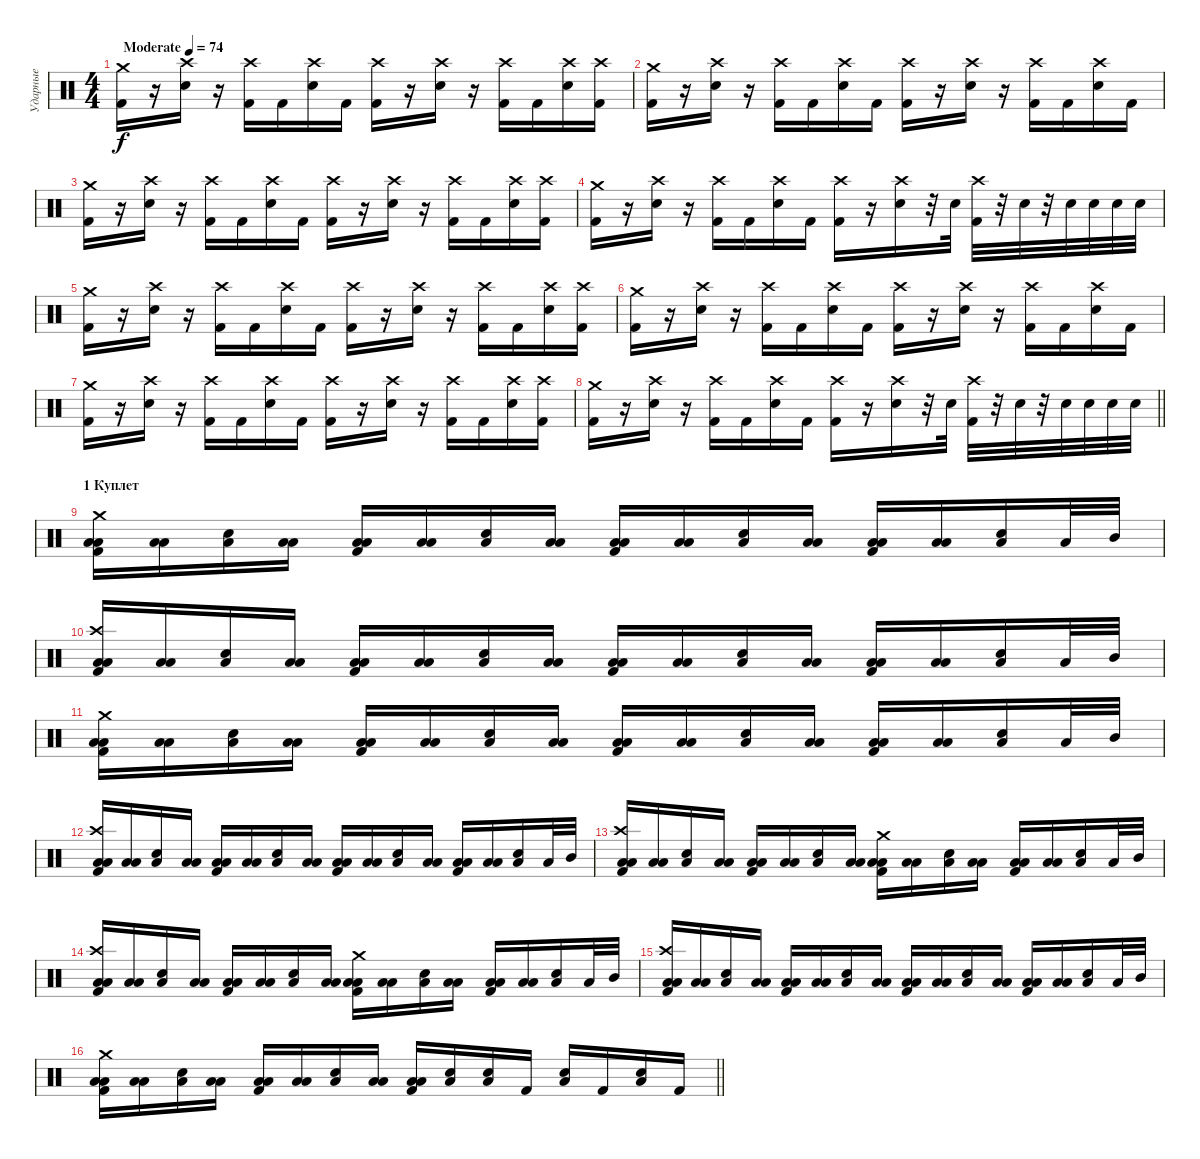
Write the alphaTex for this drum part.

\track ("Ударные" "Ударные") {instrument percussion}
\staff {score}
\articulation defaults
\ts (4 4)
\tempo (74 "Moderate")
\clef neutral
\ks c
("Crash medium (hit)" "Kick (hit) 2").16{dy f} r.16 ("Crash high (hit)" "Electric Snare (hit)").16 r.16 ("Crash high (hit)" "Kick (hit) 2").16 "Kick (hit) 2".16 ("Crash high (hit)" "Electric Snare (hit)").16 "Kick (hit) 2".16 ("Crash high (hit)" "Kick (hit) 2").16 r.16 ("Crash high (hit)" "Electric Snare (hit)").16 r.16 ("Crash high (hit)" "Kick (hit) 2").16 "Kick (hit) 2".16 ("Crash high (hit)" "Electric Snare (hit)").16 ("Crash high (hit)" "Kick (hit) 2").16 |
("Crash medium (hit)" "Kick (hit) 2").16 r.16 ("Crash high (hit)" "Electric Snare (hit)").16 r.16 ("Crash high (hit)" "Kick (hit) 2").16 "Kick (hit) 2".16 ("Crash high (hit)" "Electric Snare (hit)").16 "Kick (hit) 2".16 ("Crash high (hit)" "Kick (hit) 2").16 r.16 ("Crash high (hit)" "Electric Snare (hit)").16 r.16 ("Crash high (hit)" "Kick (hit) 2").16 "Kick (hit) 2".16 ("Crash high (hit)" "Electric Snare (hit)").16 "Kick (hit) 2".16 |
("Crash medium (hit)" "Kick (hit) 2").16 r.16 ("Crash high (hit)" "Electric Snare (hit)").16 r.16 ("Crash high (hit)" "Kick (hit) 2").16 "Kick (hit) 2".16 ("Crash high (hit)" "Electric Snare (hit)").16 "Kick (hit) 2".16 ("Crash high (hit)" "Kick (hit) 2").16 r.16 ("Crash high (hit)" "Electric Snare (hit)").16 r.16 ("Crash high (hit)" "Kick (hit) 2").16 "Kick (hit) 2".16 ("Crash high (hit)" "Electric Snare (hit)").16 ("Crash high (hit)" "Kick (hit) 2").16 |
("Crash medium (hit)" "Kick (hit) 2").16 r.16 ("Crash high (hit)" "Electric Snare (hit)").16 r.16 ("Crash high (hit)" "Kick (hit) 2").16 "Kick (hit) 2".16 ("Crash high (hit)" "Electric Snare (hit)").16 "Kick (hit) 2".16 ("Crash high (hit)" "Kick (hit) 2").16 r.16 ("Crash high (hit)" "Electric Snare (hit)").16 r.32 "Electric Snare (hit)".32 ("Crash high (hit)" "Kick (hit) 2").32 r.32 "Electric Snare (hit)".32 r.32 "Electric Snare (hit)".32 "Electric Snare (hit)".32 "Electric Snare (hit)".32 "Electric Snare (hit)".32 |
("Crash medium (hit)" "Kick (hit) 2").16 r.16 ("Crash high (hit)" "Electric Snare (hit)").16 r.16 ("Crash high (hit)" "Kick (hit) 2").16 "Kick (hit) 2".16 ("Crash high (hit)" "Electric Snare (hit)").16 "Kick (hit) 2".16 ("Crash high (hit)" "Kick (hit) 2").16 r.16 ("Crash high (hit)" "Electric Snare (hit)").16 r.16 ("Crash high (hit)" "Kick (hit) 2").16 "Kick (hit) 2".16 ("Crash high (hit)" "Electric Snare (hit)").16 ("Crash high (hit)" "Kick (hit) 2").16 |
("Crash medium (hit)" "Kick (hit) 2").16 r.16 ("Crash high (hit)" "Electric Snare (hit)").16 r.16 ("Crash high (hit)" "Kick (hit) 2").16 "Kick (hit) 2".16 ("Crash high (hit)" "Electric Snare (hit)").16 "Kick (hit) 2".16 ("Crash high (hit)" "Kick (hit) 2").16 r.16 ("Crash high (hit)" "Electric Snare (hit)").16 r.16 ("Crash high (hit)" "Kick (hit) 2").16 "Kick (hit) 2".16 ("Crash high (hit)" "Electric Snare (hit)").16 "Kick (hit) 2".16 |
("Crash medium (hit)" "Kick (hit) 2").16 r.16 ("Crash high (hit)" "Electric Snare (hit)").16 r.16 ("Crash high (hit)" "Kick (hit) 2").16 "Kick (hit) 2".16 ("Crash high (hit)" "Electric Snare (hit)").16 "Kick (hit) 2".16 ("Crash high (hit)" "Kick (hit) 2").16 r.16 ("Crash high (hit)" "Electric Snare (hit)").16 r.16 ("Crash high (hit)" "Kick (hit) 2").16 "Kick (hit) 2".16 ("Crash high (hit)" "Electric Snare (hit)").16 ("Crash high (hit)" "Kick (hit) 2").16 |
\barLineRight lightlight
("Crash medium (hit)" "Kick (hit) 2").16 r.16 ("Crash high (hit)" "Electric Snare (hit)").16 r.16 ("Crash high (hit)" "Kick (hit) 2").16 "Kick (hit) 2".16 ("Crash high (hit)" "Electric Snare (hit)").16 "Kick (hit) 2".16 ("Crash high (hit)" "Kick (hit) 2").16 r.16 ("Crash high (hit)" "Electric Snare (hit)").16 r.32 "Electric Snare (hit)".32 ("Crash high (hit)" "Kick (hit) 2").32 r.32 "Electric Snare (hit)".32 r.32 "Electric Snare (hit)".32 "Electric Snare (hit)".32 "Electric Snare (hit)".32 "Electric Snare (hit)".32 |
\section ("" "1 Куплет")
("Crash medium (hit)" "Low Tom (hit)" "Low Floor Tom (hit)" "Kick (hit) 2").16 ("Low Tom (hit)" "Low Floor Tom (hit)").16 ("Low Floor Tom (hit)" "Electric Snare (hit)").16 ("Low Tom (hit)" "Low Floor Tom (hit)").16 ("Low Tom (hit)" "Low Floor Tom (hit)" "Kick (hit) 2").16 ("Low Tom (hit)" "Low Floor Tom (hit)").16 ("Low Floor Tom (hit)" "Electric Snare (hit)").16 ("Low Tom (hit)" "Low Floor Tom (hit)").16 ("Low Tom (hit)" "Low Floor Tom (hit)" "Kick (hit) 2").16 ("Low Tom (hit)" "Low Floor Tom (hit)").16 ("Low Floor Tom (hit)" "Electric Snare (hit)").16 ("Low Tom (hit)" "Low Floor Tom (hit)").16 ("Low Tom (hit)" "Low Floor Tom (hit)" "Kick (hit) 2").16 ("Low Tom (hit)" "Low Floor Tom (hit)").16 ("Low Floor Tom (hit)" "Electric Snare (hit)").16 "Low Tom (hit)".32 "Mid Tom (hit)".32 |
("Crash high (hit)" "Low Tom (hit)" "Low Floor Tom (hit)" "Kick (hit) 2").16 ("Low Tom (hit)" "Low Floor Tom (hit)").16 ("Low Floor Tom (hit)" "Electric Snare (hit)").16 ("Low Tom (hit)" "Low Floor Tom (hit)").16 ("Low Tom (hit)" "Low Floor Tom (hit)" "Kick (hit) 2").16 ("Low Tom (hit)" "Low Floor Tom (hit)").16 ("Low Floor Tom (hit)" "Electric Snare (hit)").16 ("Low Tom (hit)" "Low Floor Tom (hit)").16 ("Low Tom (hit)" "Low Floor Tom (hit)" "Kick (hit) 2").16 ("Low Tom (hit)" "Low Floor Tom (hit)").16 ("Low Floor Tom (hit)" "Electric Snare (hit)").16 ("Low Tom (hit)" "Low Floor Tom (hit)").16 ("Low Tom (hit)" "Low Floor Tom (hit)" "Kick (hit) 2").16 ("Low Tom (hit)" "Low Floor Tom (hit)").16 ("Low Floor Tom (hit)" "Electric Snare (hit)").16 "Low Tom (hit)".32 "Mid Tom (hit)".32 |
("Crash medium (hit)" "Low Tom (hit)" "Low Floor Tom (hit)" "Kick (hit) 2").16 ("Low Tom (hit)" "Low Floor Tom (hit)").16 ("Low Floor Tom (hit)" "Electric Snare (hit)").16 ("Low Tom (hit)" "Low Floor Tom (hit)").16 ("Low Tom (hit)" "Low Floor Tom (hit)" "Kick (hit) 2").16 ("Low Tom (hit)" "Low Floor Tom (hit)").16 ("Low Floor Tom (hit)" "Electric Snare (hit)").16 ("Low Tom (hit)" "Low Floor Tom (hit)").16 ("Low Tom (hit)" "Low Floor Tom (hit)" "Kick (hit) 2").16 ("Low Tom (hit)" "Low Floor Tom (hit)").16 ("Low Floor Tom (hit)" "Electric Snare (hit)").16 ("Low Tom (hit)" "Low Floor Tom (hit)").16 ("Low Tom (hit)" "Low Floor Tom (hit)" "Kick (hit) 2").16 ("Low Tom (hit)" "Low Floor Tom (hit)").16 ("Low Floor Tom (hit)" "Electric Snare (hit)").16 "Low Tom (hit)".32 "Mid Tom (hit)".32 |
("Crash high (hit)" "Low Tom (hit)" "Low Floor Tom (hit)" "Kick (hit) 2").16 ("Low Tom (hit)" "Low Floor Tom (hit)").16 ("Low Floor Tom (hit)" "Electric Snare (hit)").16 ("Low Tom (hit)" "Low Floor Tom (hit)").16 ("Low Tom (hit)" "Low Floor Tom (hit)" "Kick (hit) 2").16 ("Low Tom (hit)" "Low Floor Tom (hit)").16 ("Low Floor Tom (hit)" "Electric Snare (hit)").16 ("Low Tom (hit)" "Low Floor Tom (hit)").16 ("Low Tom (hit)" "Low Floor Tom (hit)" "Kick (hit) 2").16 ("Low Tom (hit)" "Low Floor Tom (hit)").16 ("Low Floor Tom (hit)" "Electric Snare (hit)").16 ("Low Tom (hit)" "Low Floor Tom (hit)").16 ("Low Tom (hit)" "Low Floor Tom (hit)" "Kick (hit) 2").16 ("Low Tom (hit)" "Low Floor Tom (hit)").16 ("Low Floor Tom (hit)" "Electric Snare (hit)").16 "Low Tom (hit)".32 "Mid Tom (hit)".32 |
("Crash high (hit)" "Low Tom (hit)" "Low Floor Tom (hit)" "Kick (hit) 2").16 ("Low Tom (hit)" "Low Floor Tom (hit)").16 ("Low Floor Tom (hit)" "Electric Snare (hit)").16 ("Low Tom (hit)" "Low Floor Tom (hit)").16 ("Low Tom (hit)" "Low Floor Tom (hit)" "Kick (hit) 2").16 ("Low Tom (hit)" "Low Floor Tom (hit)").16 ("Low Floor Tom (hit)" "Electric Snare (hit)").16 ("Low Tom (hit)" "Low Floor Tom (hit)").16 ("Crash medium (hit)" "Low Tom (hit)" "Low Floor Tom (hit)" "Kick (hit) 2").16 ("Low Tom (hit)" "Low Floor Tom (hit)").16 ("Low Floor Tom (hit)" "Electric Snare (hit)").16 ("Low Tom (hit)" "Low Floor Tom (hit)").16 ("Low Tom (hit)" "Low Floor Tom (hit)" "Kick (hit) 2").16 ("Low Tom (hit)" "Low Floor Tom (hit)").16 ("Low Floor Tom (hit)" "Electric Snare (hit)").16 "Low Tom (hit)".32 "Mid Tom (hit)".32 |
("Crash high (hit)" "Low Tom (hit)" "Low Floor Tom (hit)" "Kick (hit) 2").16 ("Low Tom (hit)" "Low Floor Tom (hit)").16 ("Low Floor Tom (hit)" "Electric Snare (hit)").16 ("Low Tom (hit)" "Low Floor Tom (hit)").16 ("Low Tom (hit)" "Low Floor Tom (hit)" "Kick (hit) 2").16 ("Low Tom (hit)" "Low Floor Tom (hit)").16 ("Low Floor Tom (hit)" "Electric Snare (hit)").16 ("Low Tom (hit)" "Low Floor Tom (hit)").16 ("Crash medium (hit)" "Low Tom (hit)" "Low Floor Tom (hit)" "Kick (hit) 2").16 ("Low Tom (hit)" "Low Floor Tom (hit)").16 ("Low Floor Tom (hit)" "Electric Snare (hit)").16 ("Low Tom (hit)" "Low Floor Tom (hit)").16 ("Low Tom (hit)" "Low Floor Tom (hit)" "Kick (hit) 2").16 ("Low Tom (hit)" "Low Floor Tom (hit)").16 ("Low Floor Tom (hit)" "Electric Snare (hit)").16 "Low Tom (hit)".32 "Mid Tom (hit)".32 |
("Crash high (hit)" "Low Tom (hit)" "Low Floor Tom (hit)" "Kick (hit) 2").16 ("Low Tom (hit)" "Low Floor Tom (hit)").16 ("Low Floor Tom (hit)" "Electric Snare (hit)").16 ("Low Tom (hit)" "Low Floor Tom (hit)").16 ("Low Tom (hit)" "Low Floor Tom (hit)" "Kick (hit) 2").16 ("Low Tom (hit)" "Low Floor Tom (hit)").16 ("Low Floor Tom (hit)" "Electric Snare (hit)").16 ("Low Tom (hit)" "Low Floor Tom (hit)").16 ("Low Tom (hit)" "Low Floor Tom (hit)" "Kick (hit) 2").16 ("Low Tom (hit)" "Low Floor Tom (hit)").16 ("Low Floor Tom (hit)" "Electric Snare (hit)").16 ("Low Tom (hit)" "Low Floor Tom (hit)").16 ("Low Tom (hit)" "Low Floor Tom (hit)" "Kick (hit) 2").16 ("Low Tom (hit)" "Low Floor Tom (hit)").16 ("Low Floor Tom (hit)" "Electric Snare (hit)").16 "Low Tom (hit)".32 "Mid Tom (hit)".32 |
\barLineRight lightlight
("Crash medium (hit)" "Low Tom (hit)" "Low Floor Tom (hit)" "Kick (hit) 2").16 ("Low Tom (hit)" "Low Floor Tom (hit)").16 ("Low Floor Tom (hit)" "Electric Snare (hit)").16 ("Low Tom (hit)" "Low Floor Tom (hit)").16 ("Low Tom (hit)" "Low Floor Tom (hit)" "Kick (hit) 2").16 ("Low Tom (hit)" "Low Floor Tom (hit)").16 ("Low Floor Tom (hit)" "Electric Snare (hit)").16 ("Low Tom (hit)" "Low Floor Tom (hit)").16 ("Low Tom (hit)" "Low Floor Tom (hit)" "Kick (hit) 2").16 ("Low Floor Tom (hit)" "Electric Snare (hit)").16 ("Low Floor Tom (hit)" "Electric Snare (hit)").16 "Kick (hit) 2".16 ("Low Floor Tom (hit)" "Electric Snare (hit)").16 "Kick (hit) 2".16 ("Low Floor Tom (hit)" "Electric Snare (hit)").16 "Kick (hit) 2".16
